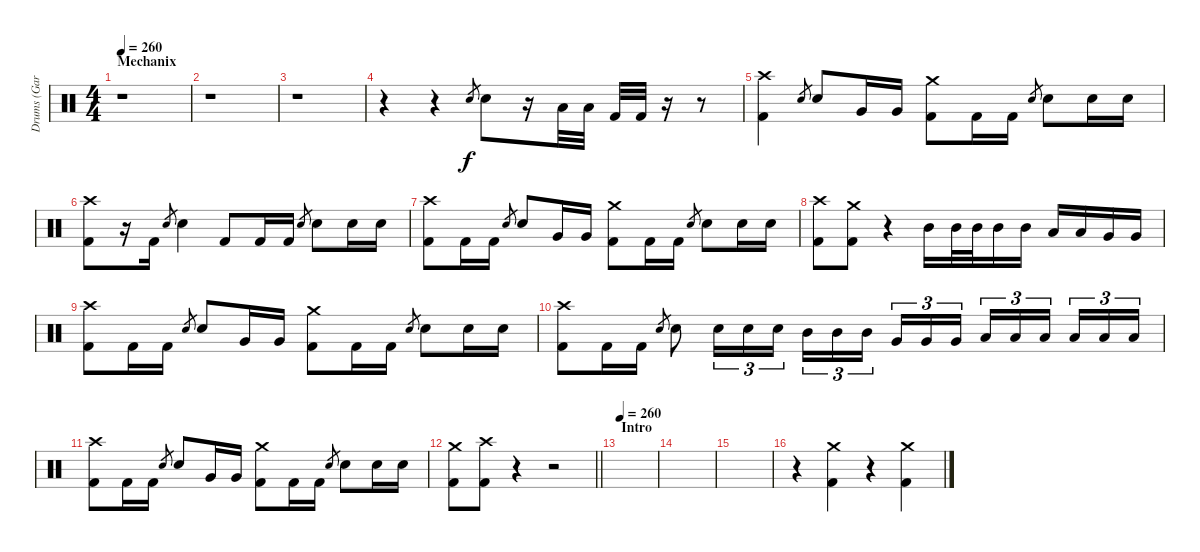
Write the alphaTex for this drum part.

\track ("Drums (Gar Samuelson)" "Drums (Gar") {instrument percussion}
\staff {score}
\articulation defaults
\ts (4 4)
\section ("" "Mechanix")
\tempo 260
\tempo 100
\tempo 260
\clef neutral
\ks c
r.1{dy f} |
r.1 |
r.1 |
r.4 r.4 "Snare (hit) 2".8{gr} "Snare (hit) 2".8 r.16 "Low Floor Tom (hit)".32 "Low Tom (hit)".32 "Kick (hit) 2".32 "Kick (hit) 2".32 r.16 r.8 |
("Crash high (hit)" "Kick (hit) 2").4 "Snare (hit) 2".8{gr} "Snare (hit) 2".8 "Very Low Tom (hit)".16 "Very Low Tom (hit)".16 ("Crash medium (hit)" "Kick (hit) 2").8 "Kick (hit) 2".16 "Kick (hit) 2".16 "Snare (hit) 2".8{gr} "Snare (hit) 2".8 "Snare (hit) 2".16 "Snare (hit) 2".16 |
("Crash high (hit)" "Kick (hit) 2").8 r.16 "Kick (hit) 2".16 "Snare (hit) 2".8{gr} "Snare (hit) 2".4 "Kick (hit) 2".8 "Kick (hit) 2".16 "Kick (hit) 2".16 "Snare (hit) 2".8{gr} "Snare (hit) 2".8 "Snare (hit) 2".16 "Snare (hit) 2".16 |
("Crash high (hit)" "Kick (hit) 2").8 "Kick (hit) 2".16 "Kick (hit) 2".16 "Snare (hit) 2".8{gr} "Snare (hit) 2".8 "Very Low Tom (hit)".16 "Very Low Tom (hit)".16 ("Crash medium (hit)" "Kick (hit) 2").8 "Kick (hit) 2".16 "Kick (hit) 2".16 "Snare (hit) 2".8{gr} "Snare (hit) 2".8 "Snare (hit) 2".16 "Snare (hit) 2".16 |
("Crash high (hit)" "Kick (hit) 2").8 ("Crash medium (hit)" "Kick (hit) 2").8 r.4 "Mid Tom (hit)".16 "Mid Tom (hit)".32 "Mid Tom (hit)".32 "Mid Tom (hit)".16 "Mid Tom (hit)".16 "Low Tom (hit)".16 "Low Tom (hit)".16 "Very Low Tom (hit)".16 "Very Low Tom (hit)".16 |
("Crash high (hit)" "Kick (hit) 2").8 "Kick (hit) 2".16 "Kick (hit) 2".16 "Snare (hit) 2".8{gr} "Snare (hit) 2".8 "Very Low Tom (hit)".16 "Very Low Tom (hit)".16 ("Crash medium (hit)" "Kick (hit) 2").8 "Kick (hit) 2".16 "Kick (hit) 2".16 "Snare (hit) 2".8{gr} "Snare (hit) 2".8 "Snare (hit) 2".16 "Snare (hit) 2".16 |
("Crash high (hit)" "Kick (hit) 2").8 "Kick (hit) 2".16 "Kick (hit) 2".16 "Snare (hit) 2".8{gr} "Snare (hit) 2".8 "Snare (hit) 2".16{tu (3 2)} "Snare (hit) 2".16{tu (3 2)} "Snare (hit) 2".16{tu (3 2)} "Mid Tom (hit)".16{tu (3 2)} "Mid Tom (hit)".16{tu (3 2)} "Mid Tom (hit)".16{tu (3 2)} "Very Low Tom (hit)".16{tu (3 2)} "Very Low Tom (hit)".16{tu (3 2)} "Very Low Tom (hit)".16{tu (3 2)} "Low Tom (hit)".16{tu (3 2)} "Low Tom (hit)".16{tu (3 2)} "Low Tom (hit)".16{tu (3 2)} "Low Floor Tom (hit)".16{tu (3 2)} "Low Floor Tom (hit)".16{tu (3 2)} "Low Floor Tom (hit)".16{tu (3 2)} |
("Crash high (hit)" "Kick (hit) 2").8 "Kick (hit) 2".16 "Kick (hit) 2".16 "Snare (hit) 2".8{gr} "Snare (hit) 2".8 "Very Low Tom (hit)".16 "Very Low Tom (hit)".16 ("Crash medium (hit)" "Kick (hit) 2").8 "Kick (hit) 2".16 "Kick (hit) 2".16 "Snare (hit) 2".8{gr} "Snare (hit) 2".8 "Snare (hit) 2".16 "Snare (hit) 2".16 |
\barLineRight lightlight
("Crash medium (hit)" "Kick (hit) 2").8 ("Crash high (hit)" "Kick (hit) 2").8 r.4 r.2 |
\section ("" "Intro")
\tempo 260
|
|
|
r.4 ("Crash medium (hit)" "Kick (hit) 2").4 r.4 ("Crash medium (hit)" "Kick (hit) 2").4
